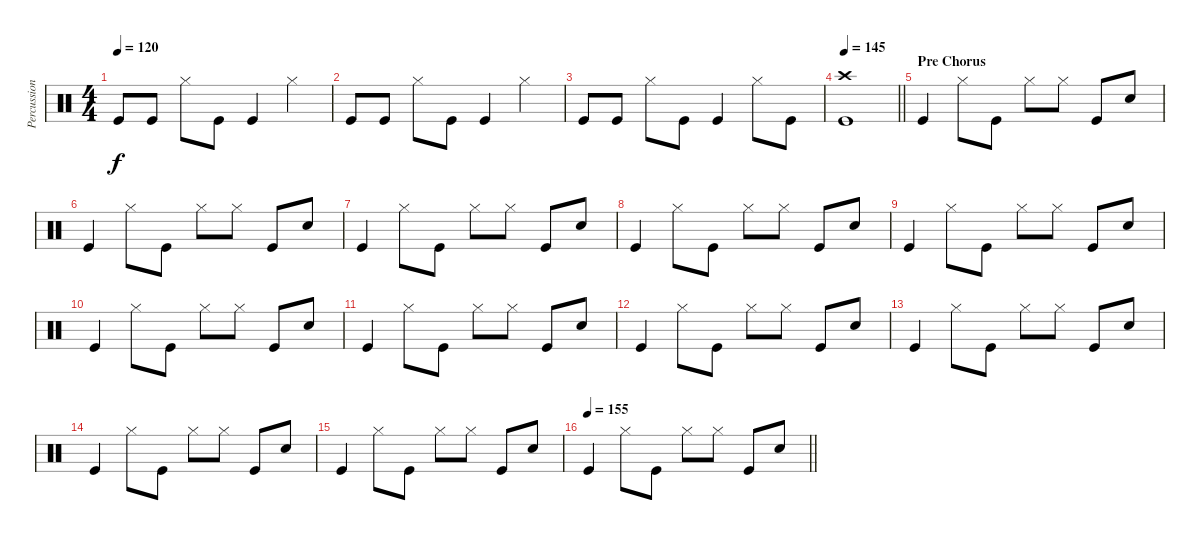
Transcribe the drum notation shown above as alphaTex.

\track ("Percussion" "Percussion") {instrument percussion}
\staff {score}
\articulation defaults
\ts (4 4)
\tempo 120
\clef neutral
\ks c "Kick (hit)".8{dy f} "Kick (hit)".8 "Hi-Hat (closed)".8 "Kick (hit)".8 "Kick (hit)".4 "Hi-Hat (closed)".4
|
"Kick (hit)".8 "Kick (hit)".8 "Hi-Hat (closed)".8 "Kick (hit)".8 "Kick (hit)".4 "Hi-Hat (closed)".4 |
"Kick (hit)".8 "Kick (hit)".8 "Hi-Hat (closed)".8 "Kick (hit)".8 "Kick (hit)".4 "Hi-Hat (closed)".8 "Kick (hit)".8 |
\tempo 145
\barLineRight lightlight
("Kick (hit)" "Crash high (hit)").1 |
\section ("" "Pre Chorus")
"Kick (hit)".4 "Hi-Hat (closed)".8 "Kick (hit)".8 "Hi-Hat (closed)".8 "Hi-Hat (closed)".8 "Kick (hit)".8 "Electric Snare (hit)".8 |
"Kick (hit)".4 "Hi-Hat (closed)".8 "Kick (hit)".8 "Hi-Hat (closed)".8 "Hi-Hat (closed)".8 "Kick (hit)".8 "Electric Snare (hit)".8 |
"Kick (hit)".4 "Hi-Hat (closed)".8 "Kick (hit)".8 "Hi-Hat (closed)".8 "Hi-Hat (closed)".8 "Kick (hit)".8 "Electric Snare (hit)".8 |
"Kick (hit)".4 "Hi-Hat (closed)".8 "Kick (hit)".8 "Hi-Hat (closed)".8 "Hi-Hat (closed)".8 "Kick (hit)".8 "Electric Snare (hit)".8 |
"Kick (hit)".4 "Hi-Hat (closed)".8 "Kick (hit)".8 "Hi-Hat (closed)".8 "Hi-Hat (closed)".8 "Kick (hit)".8 "Electric Snare (hit)".8 |
"Kick (hit)".4 "Hi-Hat (closed)".8 "Kick (hit)".8 "Hi-Hat (closed)".8 "Hi-Hat (closed)".8 "Kick (hit)".8 "Electric Snare (hit)".8 |
"Kick (hit)".4 "Hi-Hat (closed)".8 "Kick (hit)".8 "Hi-Hat (closed)".8 "Hi-Hat (closed)".8 "Kick (hit)".8 "Electric Snare (hit)".8 |
"Kick (hit)".4 "Hi-Hat (closed)".8 "Kick (hit)".8 "Hi-Hat (closed)".8 "Hi-Hat (closed)".8 "Kick (hit)".8 "Electric Snare (hit)".8 |
"Kick (hit)".4 "Hi-Hat (closed)".8 "Kick (hit)".8 "Hi-Hat (closed)".8 "Hi-Hat (closed)".8 "Kick (hit)".8 "Electric Snare (hit)".8 |
"Kick (hit)".4 "Hi-Hat (closed)".8 "Kick (hit)".8 "Hi-Hat (closed)".8 "Hi-Hat (closed)".8 "Kick (hit)".8 "Electric Snare (hit)".8 |
"Kick (hit)".4 "Hi-Hat (closed)".8 "Kick (hit)".8 "Hi-Hat (closed)".8 "Hi-Hat (closed)".8 "Kick (hit)".8 "Electric Snare (hit)".8 |
\tempo 155
\barLineRight lightlight "Kick (hit)".4 "Hi-Hat (closed)".8 "Kick (hit)".8 "Hi-Hat (closed)".8 "Hi-Hat (closed)".8 "Kick (hit)".8 "Electric Snare (hit)".8
